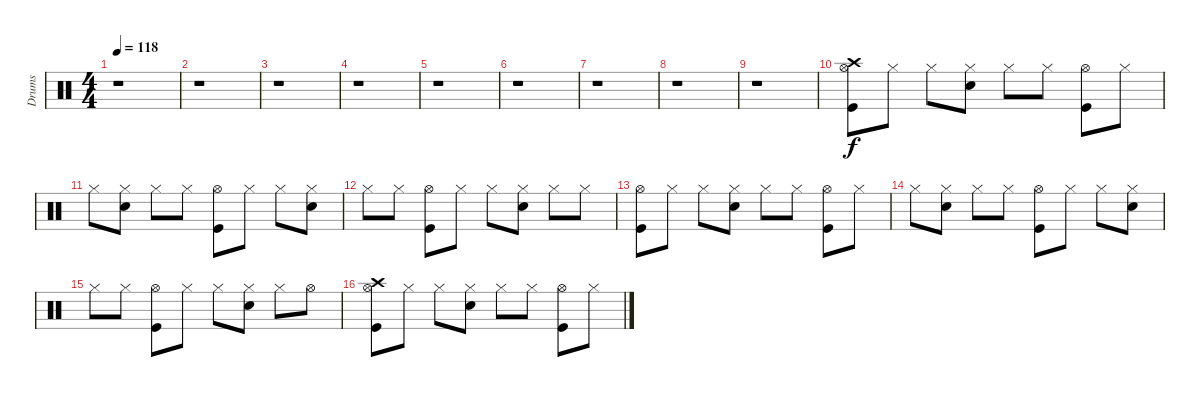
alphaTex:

\track ("Drums" "Drums") {instrument percussion}
\staff {score}
\articulation defaults
\ts (4 4)
\tempo 118
\clef neutral
\ks c
r.1{dy f} |
r.1 |
r.1 |
r.1 |
r.1 |
r.1 |
r.1 |
r.1 |
r.1 |
("Kick (hit)" "Hi-Hat (open)" "Crash high (hit)").8 "Hi-Hat (closed)".8 "Hi-Hat (closed)".8 ("Snare (hit) 2" "Hi-Hat (closed)").8 "Hi-Hat (closed)".8 "Hi-Hat (closed)".8 ("Kick (hit)" "Hi-Hat (open)").8 "Hi-Hat (closed)".8 |
"Hi-Hat (closed)".8 ("Snare (hit) 2" "Hi-Hat (closed)").8 "Hi-Hat (closed)".8 "Hi-Hat (closed)".8 ("Kick (hit)" "Hi-Hat (open)").8 "Hi-Hat (closed)".8 "Hi-Hat (closed)".8 ("Snare (hit) 2" "Hi-Hat (closed)").8 |
"Hi-Hat (closed)".8 "Hi-Hat (closed)".8 ("Kick (hit)" "Hi-Hat (open)").8 "Hi-Hat (closed)".8 "Hi-Hat (closed)".8 ("Snare (hit) 2" "Hi-Hat (closed)").8 "Hi-Hat (closed)".8 "Hi-Hat (closed)".8 |
("Kick (hit)" "Hi-Hat (open)").8 "Hi-Hat (closed)".8 "Hi-Hat (closed)".8 ("Snare (hit) 2" "Hi-Hat (closed)").8 "Hi-Hat (closed)".8 "Hi-Hat (closed)".8 ("Kick (hit)" "Hi-Hat (open)").8 "Hi-Hat (closed)".8 |
"Hi-Hat (closed)".8 ("Snare (hit) 2" "Hi-Hat (closed)").8 "Hi-Hat (closed)".8 "Hi-Hat (closed)".8 ("Kick (hit)" "Hi-Hat (open)").8 "Hi-Hat (closed)".8 "Hi-Hat (closed)".8 ("Snare (hit) 2" "Hi-Hat (closed)").8 |
"Hi-Hat (closed)".8 "Hi-Hat (closed)".8 ("Kick (hit)" "Hi-Hat (open)").8 "Hi-Hat (closed)".8 "Hi-Hat (closed)".8 ("Snare (hit) 2" "Hi-Hat (closed)").8 "Hi-Hat (closed)".8 "Hi-Hat (open)".8 |
("Kick (hit)" "Hi-Hat (open)" "Crash high (hit)").8 "Hi-Hat (closed)".8 "Hi-Hat (closed)".8 ("Snare (hit) 2" "Hi-Hat (closed)").8 "Hi-Hat (closed)".8 "Hi-Hat (closed)".8 ("Kick (hit)" "Hi-Hat (open)").8 "Hi-Hat (closed)".8
